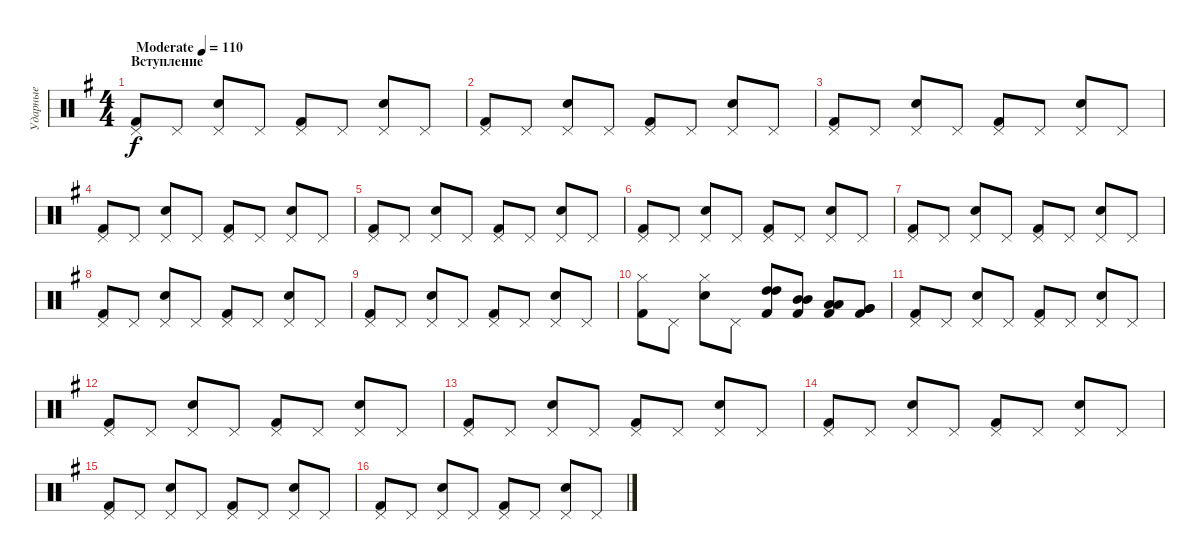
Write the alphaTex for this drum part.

\track ("Ударные" "Ударные") {instrument percussion}
\staff {score}
\articulation defaults
\ts (4 4)
\section ("" "Вступление")
\tempo (110 "Moderate")
\clef neutral
\ks eminor
("Kick (hit) 2" "Pedal Hi-Hat (hit)").8{dy f} "Pedal Hi-Hat (hit)".8 ("Snare (hit) 2" "Pedal Hi-Hat (hit)").8 "Pedal Hi-Hat (hit)".8 ("Kick (hit) 2" "Pedal Hi-Hat (hit)").8 "Pedal Hi-Hat (hit)".8 ("Snare (hit) 2" "Pedal Hi-Hat (hit)").8 "Pedal Hi-Hat (hit)".8 |
("Kick (hit) 2" "Pedal Hi-Hat (hit)").8 "Pedal Hi-Hat (hit)".8 ("Snare (hit) 2" "Pedal Hi-Hat (hit)").8 "Pedal Hi-Hat (hit)".8 ("Kick (hit) 2" "Pedal Hi-Hat (hit)").8 "Pedal Hi-Hat (hit)".8 ("Snare (hit) 2" "Pedal Hi-Hat (hit)").8 "Pedal Hi-Hat (hit)".8 |
("Kick (hit) 2" "Pedal Hi-Hat (hit)").8 "Pedal Hi-Hat (hit)".8 ("Snare (hit) 2" "Pedal Hi-Hat (hit)").8 "Pedal Hi-Hat (hit)".8 ("Kick (hit) 2" "Pedal Hi-Hat (hit)").8 "Pedal Hi-Hat (hit)".8 ("Snare (hit) 2" "Pedal Hi-Hat (hit)").8 "Pedal Hi-Hat (hit)".8 |
("Kick (hit) 2" "Pedal Hi-Hat (hit)").8 "Pedal Hi-Hat (hit)".8 ("Snare (hit) 2" "Pedal Hi-Hat (hit)").8 "Pedal Hi-Hat (hit)".8 ("Kick (hit) 2" "Pedal Hi-Hat (hit)").8 "Pedal Hi-Hat (hit)".8 ("Snare (hit) 2" "Pedal Hi-Hat (hit)").8 "Pedal Hi-Hat (hit)".8 |
("Kick (hit) 2" "Pedal Hi-Hat (hit)").8 "Pedal Hi-Hat (hit)".8 ("Snare (hit) 2" "Pedal Hi-Hat (hit)").8 "Pedal Hi-Hat (hit)".8 ("Kick (hit) 2" "Pedal Hi-Hat (hit)").8 "Pedal Hi-Hat (hit)".8 ("Snare (hit) 2" "Pedal Hi-Hat (hit)").8 "Pedal Hi-Hat (hit)".8 |
("Kick (hit) 2" "Pedal Hi-Hat (hit)").8 "Pedal Hi-Hat (hit)".8 ("Snare (hit) 2" "Pedal Hi-Hat (hit)").8 "Pedal Hi-Hat (hit)".8 ("Kick (hit) 2" "Pedal Hi-Hat (hit)").8 "Pedal Hi-Hat (hit)".8 ("Snare (hit) 2" "Pedal Hi-Hat (hit)").8 "Pedal Hi-Hat (hit)".8 |
("Kick (hit) 2" "Pedal Hi-Hat (hit)").8 "Pedal Hi-Hat (hit)".8 ("Snare (hit) 2" "Pedal Hi-Hat (hit)").8 "Pedal Hi-Hat (hit)".8 ("Kick (hit) 2" "Pedal Hi-Hat (hit)").8 "Pedal Hi-Hat (hit)".8 ("Snare (hit) 2" "Pedal Hi-Hat (hit)").8 "Pedal Hi-Hat (hit)".8 |
("Kick (hit) 2" "Pedal Hi-Hat (hit)").8 "Pedal Hi-Hat (hit)".8 ("Snare (hit) 2" "Pedal Hi-Hat (hit)").8 "Pedal Hi-Hat (hit)".8 ("Kick (hit) 2" "Pedal Hi-Hat (hit)").8 "Pedal Hi-Hat (hit)".8 ("Snare (hit) 2" "Pedal Hi-Hat (hit)").8 "Pedal Hi-Hat (hit)".8 |
("Kick (hit) 2" "Pedal Hi-Hat (hit)").8 "Pedal Hi-Hat (hit)".8 ("Snare (hit) 2" "Pedal Hi-Hat (hit)").8 "Pedal Hi-Hat (hit)".8 ("Kick (hit) 2" "Pedal Hi-Hat (hit)").8 "Pedal Hi-Hat (hit)".8 ("Snare (hit) 2" "Pedal Hi-Hat (hit)").8 "Pedal Hi-Hat (hit)".8 |
("Kick (hit) 2" "Hi-Hat (closed)").8 "Pedal Hi-Hat (hit)".8 ("Snare (hit) 2" "Hi-Hat (closed)").8 "Pedal Hi-Hat (hit)".8 ("High Tom (hit)" "High Tom (hit)" "Kick (hit) 2").8 ("Mid Tom (hit)" "Kick (hit) 2" "Mid Tom (hit)").8 ("Low Tom (hit)" "Low Tom (hit)" "Kick (hit) 2").8 ("Very Low Tom (hit)" "Very Low Tom (hit)" "Kick (hit) 2").8 |
("Kick (hit) 2" "Pedal Hi-Hat (hit)").8 "Pedal Hi-Hat (hit)".8 ("Snare (hit) 2" "Pedal Hi-Hat (hit)").8 "Pedal Hi-Hat (hit)".8 ("Kick (hit) 2" "Pedal Hi-Hat (hit)").8 "Pedal Hi-Hat (hit)".8 ("Snare (hit) 2" "Pedal Hi-Hat (hit)").8 "Pedal Hi-Hat (hit)".8 |
("Kick (hit) 2" "Pedal Hi-Hat (hit)").8 "Pedal Hi-Hat (hit)".8 ("Snare (hit) 2" "Pedal Hi-Hat (hit)").8 "Pedal Hi-Hat (hit)".8 ("Kick (hit) 2" "Pedal Hi-Hat (hit)").8 "Pedal Hi-Hat (hit)".8 ("Snare (hit) 2" "Pedal Hi-Hat (hit)").8 "Pedal Hi-Hat (hit)".8 |
("Kick (hit) 2" "Pedal Hi-Hat (hit)").8 "Pedal Hi-Hat (hit)".8 ("Snare (hit) 2" "Pedal Hi-Hat (hit)").8 "Pedal Hi-Hat (hit)".8 ("Kick (hit) 2" "Pedal Hi-Hat (hit)").8 "Pedal Hi-Hat (hit)".8 ("Snare (hit) 2" "Pedal Hi-Hat (hit)").8 "Pedal Hi-Hat (hit)".8 |
("Kick (hit) 2" "Pedal Hi-Hat (hit)").8 "Pedal Hi-Hat (hit)".8 ("Snare (hit) 2" "Pedal Hi-Hat (hit)").8 "Pedal Hi-Hat (hit)".8 ("Kick (hit) 2" "Pedal Hi-Hat (hit)").8 "Pedal Hi-Hat (hit)".8 ("Snare (hit) 2" "Pedal Hi-Hat (hit)").8 "Pedal Hi-Hat (hit)".8 |
("Kick (hit) 2" "Pedal Hi-Hat (hit)").8 "Pedal Hi-Hat (hit)".8 ("Snare (hit) 2" "Pedal Hi-Hat (hit)").8 "Pedal Hi-Hat (hit)".8 ("Kick (hit) 2" "Pedal Hi-Hat (hit)").8 "Pedal Hi-Hat (hit)".8 ("Snare (hit) 2" "Pedal Hi-Hat (hit)").8 "Pedal Hi-Hat (hit)".8 |
("Kick (hit) 2" "Pedal Hi-Hat (hit)").8 "Pedal Hi-Hat (hit)".8 ("Snare (hit) 2" "Pedal Hi-Hat (hit)").8 "Pedal Hi-Hat (hit)".8 ("Kick (hit) 2" "Pedal Hi-Hat (hit)").8 "Pedal Hi-Hat (hit)".8 ("Snare (hit) 2" "Pedal Hi-Hat (hit)").8 "Pedal Hi-Hat (hit)".8
